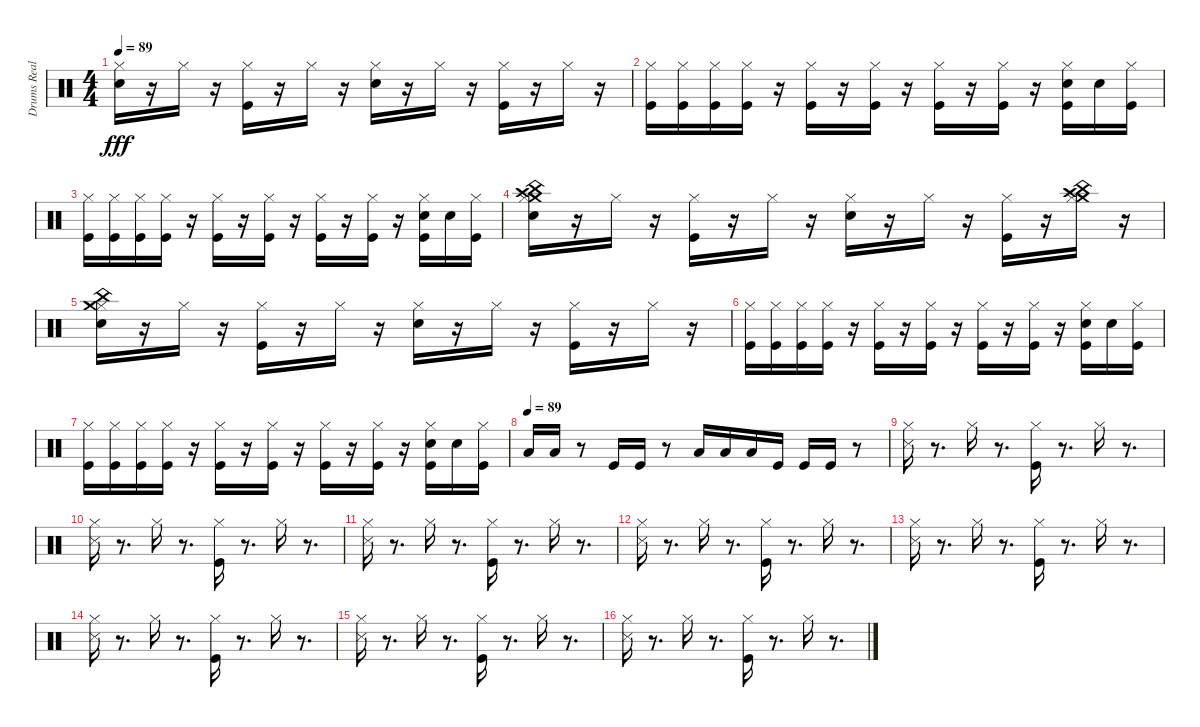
\track ("Drums Real" "Drums Real") {instrument percussion}
\staff {score}
\articulation defaults
\ts (4 4)
\tempo 89
\clef neutral
\ks c
("Electric Snare (hit)" "Hi-Hat (closed)").16{dy fff} r.16 "Hi-Hat (closed)".16 r.16 ("Kick (hit)" "Hi-Hat (closed)").16 r.16 "Hi-Hat (closed)".16 r.16 ("Electric Snare (hit)" "Hi-Hat (closed)").16 r.16 "Hi-Hat (closed)".16 r.16 ("Kick (hit)" "Hi-Hat (closed)").16 r.16 "Hi-Hat (closed)".16 r.16 |
("Kick (hit)" "Hi-Hat (closed)").16 ("Kick (hit)" "Hi-Hat (closed)").16 ("Kick (hit)" "Hi-Hat (closed)").16 ("Kick (hit)" "Hi-Hat (closed)").16 r.16 ("Kick (hit)" "Hi-Hat (closed)").16 r.16 ("Kick (hit)" "Hi-Hat (closed)").16 r.16 ("Kick (hit)" "Hi-Hat (closed)").16 r.16 ("Kick (hit)" "Hi-Hat (closed)").16 r.16 ("Kick (hit)" "Electric Snare (hit)" "Hi-Hat (closed)").16 "Electric Snare (hit)".16 ("Kick (hit)" "Hi-Hat (closed)").16 |
("Hi-Hat (closed)" "Kick (hit)").16 ("Hi-Hat (closed)" "Kick (hit)").16 ("Hi-Hat (closed)" "Kick (hit)").16 ("Hi-Hat (closed)" "Kick (hit)").16 r.16 ("Hi-Hat (closed)" "Kick (hit)").16 r.16 ("Hi-Hat (closed)" "Kick (hit)").16 r.16 ("Hi-Hat (closed)" "Kick (hit)").16 r.16 ("Hi-Hat (closed)" "Kick (hit)").16 r.16 ("Hi-Hat (closed)" "Kick (hit)" "Electric Snare (hit)").16 "Electric Snare (hit)".16 ("Hi-Hat (closed)" "Kick (hit)").16 |
("Electric Snare (hit)" "Crash high (hit)" "China (hit)" "Crash medium (hit)" "Hi-Hat (closed)").16 r.16 "Hi-Hat (closed)".16 r.16 ("Kick (hit)" "Hi-Hat (closed)").16 r.16 "Hi-Hat (closed)".16 r.16 ("Electric Snare (hit)" "Hi-Hat (closed)").16 r.16 "Hi-Hat (closed)".16 r.16 ("Kick (hit)" "Hi-Hat (closed)").16 r.16 ("Crash high (hit)" "China (hit)" "Crash medium (hit)" "Hi-Hat (closed)").16 r.16 |
("Electric Snare (hit)" "Hi-Hat (closed)" "China (hit)" "Crash medium (hit)").16 r.16 "Hi-Hat (closed)".16 r.16 ("Kick (hit)" "Hi-Hat (closed)").16 r.16 "Hi-Hat (closed)".16 r.16 ("Electric Snare (hit)" "Hi-Hat (closed)").16 r.16 "Hi-Hat (closed)".16 r.16 ("Kick (hit)" "Hi-Hat (closed)").16 r.16 "Hi-Hat (closed)".16 r.16 |
("Hi-Hat (closed)" "Kick (hit)").16 ("Hi-Hat (closed)" "Kick (hit)").16 ("Hi-Hat (closed)" "Kick (hit)").16 ("Hi-Hat (closed)" "Kick (hit)").16 r.16 ("Hi-Hat (closed)" "Kick (hit)").16 r.16 ("Hi-Hat (closed)" "Kick (hit)").16 r.16 ("Hi-Hat (closed)" "Kick (hit)").16 r.16 ("Hi-Hat (closed)" "Kick (hit)").16 r.16 ("Electric Snare (hit)" "Hi-Hat (closed)" "Kick (hit)").16 "Electric Snare (hit)".16 ("Hi-Hat (closed)" "Kick (hit)").16 |
("Kick (hit)" "Hi-Hat (closed)").16 ("Kick (hit)" "Hi-Hat (closed)").16 ("Kick (hit)" "Hi-Hat (closed)").16 ("Kick (hit)" "Hi-Hat (closed)").16 r.16 ("Kick (hit)" "Hi-Hat (closed)").16 r.16 ("Kick (hit)" "Hi-Hat (closed)").16 r.16 ("Kick (hit)" "Hi-Hat (closed)").16 r.16 ("Kick (hit)" "Hi-Hat (closed)").16 r.16 ("Electric Snare (hit)" "Kick (hit)" "Hi-Hat (closed)").16 "Electric Snare (hit)".16 ("Kick (hit)" "Hi-Hat (closed)").16 |
\tempo (89)
"Low Tom (hit)".16 "Low Tom (hit)".16 r.8 "Kick (hit)".16 "Kick (hit)".16 r.8 "Low Tom (hit)".16 "Low Tom (hit)".16 "Low Tom (hit)".16 "Kick (hit)".16 "Kick (hit)".16 "Kick (hit)".16 r.8 |
("Snare (side stick) 3" "Hi-Hat (closed)").16 r.8{d} "Hi-Hat (closed)".16 r.8{d} ("Kick (hit)" "Hi-Hat (closed)").16 r.8{d} "Hi-Hat (closed)".16 r.8{d} |
("Snare (side stick) 3" "Hi-Hat (closed)").16 r.8{d} "Hi-Hat (closed)".16 r.8{d} ("Kick (hit)" "Hi-Hat (closed)").16 r.8{d} "Hi-Hat (closed)".16 r.8{d} |
("Snare (side stick) 3" "Hi-Hat (closed)").16 r.8{d} "Hi-Hat (closed)".16 r.8{d} ("Kick (hit)" "Hi-Hat (closed)").16 r.8{d} "Hi-Hat (closed)".16 r.8{d} |
("Snare (side stick) 3" "Hi-Hat (closed)").16 r.8{d} "Hi-Hat (closed)".16 r.8{d} ("Kick (hit)" "Hi-Hat (closed)").16 r.8{d} "Hi-Hat (closed)".16 r.8{d} |
("Snare (side stick) 3" "Hi-Hat (closed)").16 r.8{d} "Hi-Hat (closed)".16 r.8{d} ("Kick (hit)" "Hi-Hat (closed)").16 r.8{d} "Hi-Hat (closed)".16 r.8{d} |
("Snare (side stick) 3" "Hi-Hat (closed)").16 r.8{d} "Hi-Hat (closed)".16 r.8{d} ("Kick (hit)" "Hi-Hat (closed)").16 r.8{d} "Hi-Hat (closed)".16 r.8{d} |
("Snare (side stick) 3" "Hi-Hat (closed)").16 r.8{d} "Hi-Hat (closed)".16 r.8{d} ("Kick (hit)" "Hi-Hat (closed)").16 r.8{d} "Hi-Hat (closed)".16 r.8{d} |
("Snare (side stick) 3" "Hi-Hat (closed)").16 r.8{d} "Hi-Hat (closed)".16 r.8{d} ("Kick (hit)" "Hi-Hat (closed)").16 r.8{d} "Hi-Hat (closed)".16 r.8{d}
